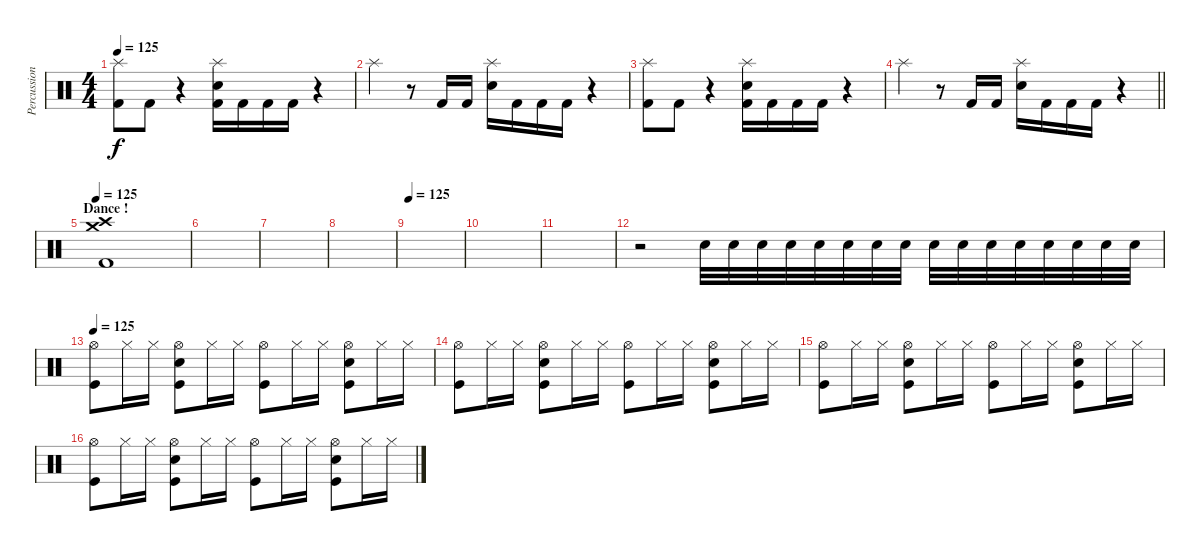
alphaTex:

\track ("Percussion" "Percussion") {instrument percussion}
\staff {score}
\articulation defaults
\ts (4 4)
\tempo 125
\clef neutral
\ks c
("Splash (hit)" "Kick (hit) 2").8{dy f} "Kick (hit) 2".8 r.4 ("Splash (hit)" "Snare (hit) 2" "Kick (hit) 2").16 "Kick (hit) 2".16 "Kick (hit) 2".16 "Kick (hit) 2".16 r.4 |
"Splash (hit)".4 r.8 "Kick (hit) 2".16 "Kick (hit) 2".16 ("Splash (hit)" "Snare (hit) 2").16 "Kick (hit) 2".16 "Kick (hit) 2".16 "Kick (hit) 2".16 r.4 |
("Splash (hit)" "Kick (hit) 2").8 "Kick (hit) 2".8 r.4 ("Splash (hit)" "Snare (hit) 2" "Kick (hit) 2").16 "Kick (hit) 2".16 "Kick (hit) 2".16 "Kick (hit) 2".16 r.4 |
\barLineRight lightlight "Splash (hit)".4
r.8 "Kick (hit) 2".16 "Kick (hit) 2".16 ("Splash (hit)" "Snare (hit) 2").16 "Kick (hit) 2".16 "Kick (hit) 2".16 "Kick (hit) 2".16 r.4 |
\section ("" "Dance !")
\tempo 125
("Crash medium (hit)" "Crash high (hit)" "Kick (hit) 2").1 |
|
|
|
\tempo 125
|
|
|
r.2 "Snare (hit) 2".32 "Snare (hit) 2".32 "Snare (hit) 2".32 "Snare (hit) 2".32 "Snare (hit) 2".32 "Snare (hit) 2".32 "Snare (hit) 2".32 "Snare (hit) 2".32 "Snare (hit) 2".32 "Snare (hit) 2".32 "Snare (hit) 2".32 "Snare (hit) 2".32 "Snare (hit) 2".32 "Snare (hit) 2".32 "Snare (hit) 2".32 "Snare (hit) 2".32 |
\tempo 125
("Hi-Hat (open)" "Kick (hit)").8 "Hi-Hat (closed)".16 "Hi-Hat (closed)".16 ("Hi-Hat (open)" "Hand Clap (hit)" "Kick (hit)").8 "Hi-Hat (closed)".16 "Hi-Hat (closed)".16 ("Hi-Hat (open)" "Kick (hit)").8 "Hi-Hat (closed)".16 "Hi-Hat (closed)".16 ("Hi-Hat (open)" "Hand Clap (hit)" "Kick (hit)").8 "Hi-Hat (closed)".16 "Hi-Hat (closed)".16 |
("Hi-Hat (open)" "Kick (hit)").8 "Hi-Hat (closed)".16 "Hi-Hat (closed)".16 ("Hi-Hat (open)" "Hand Clap (hit)" "Kick (hit)").8 "Hi-Hat (closed)".16 "Hi-Hat (closed)".16 ("Hi-Hat (open)" "Kick (hit)").8 "Hi-Hat (closed)".16 "Hi-Hat (closed)".16 ("Hi-Hat (open)" "Hand Clap (hit)" "Kick (hit)").8 "Hi-Hat (closed)".16 "Hi-Hat (closed)".16 |
("Hi-Hat (open)" "Kick (hit)").8 "Hi-Hat (closed)".16 "Hi-Hat (closed)".16 ("Hi-Hat (open)" "Hand Clap (hit)" "Kick (hit)").8 "Hi-Hat (closed)".16 "Hi-Hat (closed)".16 ("Hi-Hat (open)" "Kick (hit)").8 "Hi-Hat (closed)".16 "Hi-Hat (closed)".16 ("Hi-Hat (open)" "Hand Clap (hit)" "Kick (hit)").8 "Hi-Hat (closed)".16 "Hi-Hat (closed)".16 |
("Hi-Hat (open)" "Kick (hit)").8 "Hi-Hat (closed)".16 "Hi-Hat (closed)".16 ("Hi-Hat (open)" "Hand Clap (hit)" "Kick (hit)").8 "Hi-Hat (closed)".16 "Hi-Hat (closed)".16 ("Hi-Hat (open)" "Kick (hit)").8 "Hi-Hat (closed)".16 "Hi-Hat (closed)".16 ("Hi-Hat (open)" "Hand Clap (hit)" "Kick (hit)").8 "Hi-Hat (closed)".16 "Hi-Hat (closed)".16
